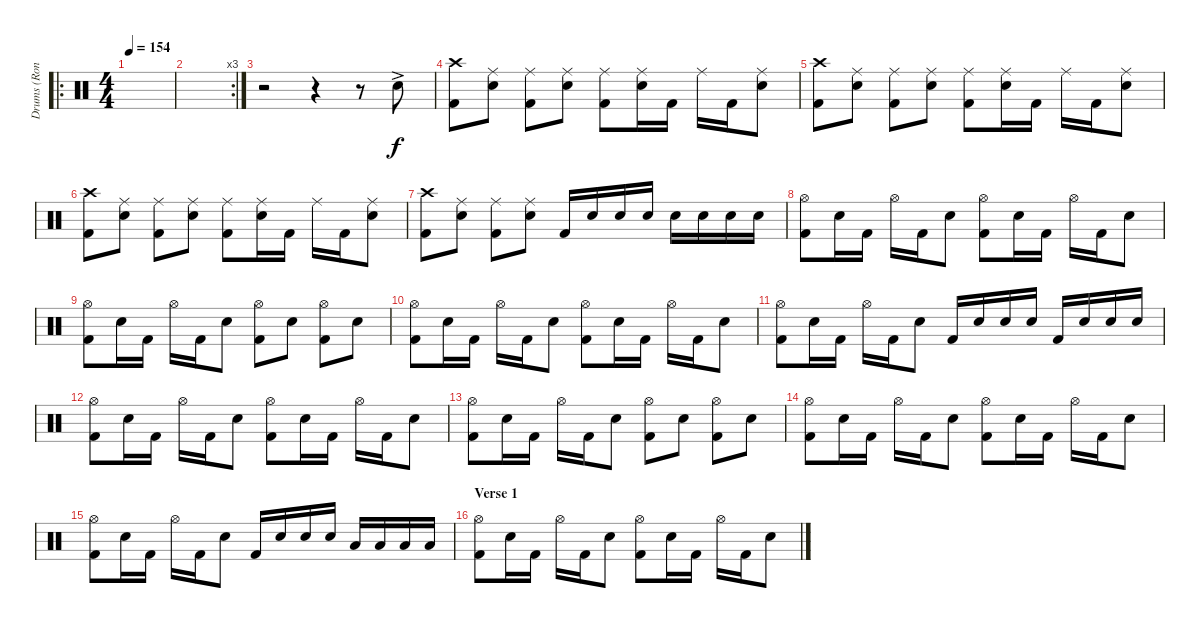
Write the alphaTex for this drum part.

\track ("Drums (Ron Welty)" "Drums (Ron") {instrument percussion}
\staff {score}
\articulation defaults
\ro
\ts (4 4)
\tempo 154
\clef neutral
\ks c
|
\rc 3
|
r.2 r.4 r.8 "Electric Snare (hit)"{ac}.8 |
("Crash high (hit)" "Kick (hit) 2").8{dy f} ("Ride (middle)" "Electric Snare (hit)").8 ("Ride (middle)" "Kick (hit) 2").8 ("Ride (middle)" "Electric Snare (hit)").8 ("Ride (middle)" "Kick (hit) 2").8 ("Ride (middle)" "Electric Snare (hit)").16 "Kick (hit) 2".16 "Ride (middle)".16 "Kick (hit) 2".16 ("Ride (middle)" "Electric Snare (hit)").8 |
("Crash high (hit)" "Kick (hit) 2").8 ("Ride (middle)" "Electric Snare (hit)").8 ("Ride (middle)" "Kick (hit) 2").8 ("Ride (middle)" "Electric Snare (hit)").8 ("Ride (middle)" "Kick (hit) 2").8 ("Ride (middle)" "Electric Snare (hit)").16 "Kick (hit) 2".16 "Ride (middle)".16 "Kick (hit) 2".16 ("Ride (middle)" "Electric Snare (hit)").8 |
("Crash high (hit)" "Kick (hit) 2").8 ("Ride (middle)" "Electric Snare (hit)").8 ("Ride (middle)" "Kick (hit) 2").8 ("Ride (middle)" "Electric Snare (hit)").8 ("Ride (middle)" "Kick (hit) 2").8 ("Ride (middle)" "Electric Snare (hit)").16 "Kick (hit) 2".16 "Ride (middle)".16 "Kick (hit) 2".16 ("Ride (middle)" "Electric Snare (hit)").8 |
("Crash high (hit)" "Kick (hit) 2").8 ("Ride (middle)" "Electric Snare (hit)").8 ("Ride (middle)" "Kick (hit) 2").8 ("Ride (middle)" "Electric Snare (hit)").8 "Kick (hit) 2".16 "Electric Snare (hit)".16 "Electric Snare (hit)".16 "Electric Snare (hit)".16 "Electric Snare (hit)".16 "Electric Snare (hit)".16 "Electric Snare (hit)".16 "Electric Snare (hit)".16 |
("Hi-Hat (open)" "Kick (hit) 2").8 "Electric Snare (hit)".16 "Kick (hit) 2".16 "Hi-Hat (open)".16 "Kick (hit) 2".16 "Electric Snare (hit)".8 ("Hi-Hat (open)" "Kick (hit) 2").8 "Electric Snare (hit)".16 "Kick (hit) 2".16 "Hi-Hat (open)".16 "Kick (hit) 2".16 "Electric Snare (hit)".8 |
("Hi-Hat (open)" "Kick (hit) 2").8 "Electric Snare (hit)".16 "Kick (hit) 2".16 "Hi-Hat (open)".16 "Kick (hit) 2".16 "Electric Snare (hit)".8 ("Hi-Hat (open)" "Kick (hit) 2").8 "Electric Snare (hit)".8 ("Hi-Hat (open)" "Kick (hit) 2").8 "Electric Snare (hit)".8 |
("Hi-Hat (open)" "Kick (hit) 2").8 "Electric Snare (hit)".16 "Kick (hit) 2".16 "Hi-Hat (open)".16 "Kick (hit) 2".16 "Electric Snare (hit)".8 ("Hi-Hat (open)" "Kick (hit) 2").8 "Electric Snare (hit)".16 "Kick (hit) 2".16 "Hi-Hat (open)".16 "Kick (hit) 2".16 "Electric Snare (hit)".8 |
("Hi-Hat (open)" "Kick (hit) 2").8 "Electric Snare (hit)".16 "Kick (hit) 2".16 "Hi-Hat (open)".16 "Kick (hit) 2".16 "Electric Snare (hit)".8 "Kick (hit) 2".16 "Electric Snare (hit)".16 "Electric Snare (hit)".16 "Electric Snare (hit)".16 "Kick (hit) 2".16 "Electric Snare (hit)".16 "Electric Snare (hit)".16 "Electric Snare (hit)".16 |
("Hi-Hat (open)" "Kick (hit) 2").8 "Electric Snare (hit)".16 "Kick (hit) 2".16 "Hi-Hat (open)".16 "Kick (hit) 2".16 "Electric Snare (hit)".8 ("Hi-Hat (open)" "Kick (hit) 2").8 "Electric Snare (hit)".16 "Kick (hit) 2".16 "Hi-Hat (open)".16 "Kick (hit) 2".16 "Electric Snare (hit)".8 |
("Hi-Hat (open)" "Kick (hit) 2").8 "Electric Snare (hit)".16 "Kick (hit) 2".16 "Hi-Hat (open)".16 "Kick (hit) 2".16 "Electric Snare (hit)".8 ("Hi-Hat (open)" "Kick (hit) 2").8 "Electric Snare (hit)".8 ("Hi-Hat (open)" "Kick (hit) 2").8 "Electric Snare (hit)".8 |
("Hi-Hat (open)" "Kick (hit) 2").8 "Electric Snare (hit)".16 "Kick (hit) 2".16 "Hi-Hat (open)".16 "Kick (hit) 2".16 "Electric Snare (hit)".8 ("Hi-Hat (open)" "Kick (hit) 2").8 "Electric Snare (hit)".16 "Kick (hit) 2".16 "Hi-Hat (open)".16 "Kick (hit) 2".16 "Electric Snare (hit)".8 |
("Hi-Hat (open)" "Kick (hit) 2").8 "Electric Snare (hit)".16 "Kick (hit) 2".16 "Hi-Hat (open)".16 "Kick (hit) 2".16 "Electric Snare (hit)".8 "Kick (hit) 2".16 "Electric Snare (hit)".16 "Electric Snare (hit)".16 "Electric Snare (hit)".16 "Low Tom (hit)".16 "Low Tom (hit)".16 "Low Floor Tom (hit)".16 "Low Floor Tom (hit)".16 |
\section ("" "Verse 1")
("Hi-Hat (open)" "Kick (hit) 2").8 "Electric Snare (hit)".16 "Kick (hit) 2".16 "Hi-Hat (open)".16 "Kick (hit) 2".16 "Electric Snare (hit)".8 ("Hi-Hat (open)" "Kick (hit) 2").8 "Electric Snare (hit)".16 "Kick (hit) 2".16 "Hi-Hat (open)".16 "Kick (hit) 2".16 "Electric Snare (hit)".8
